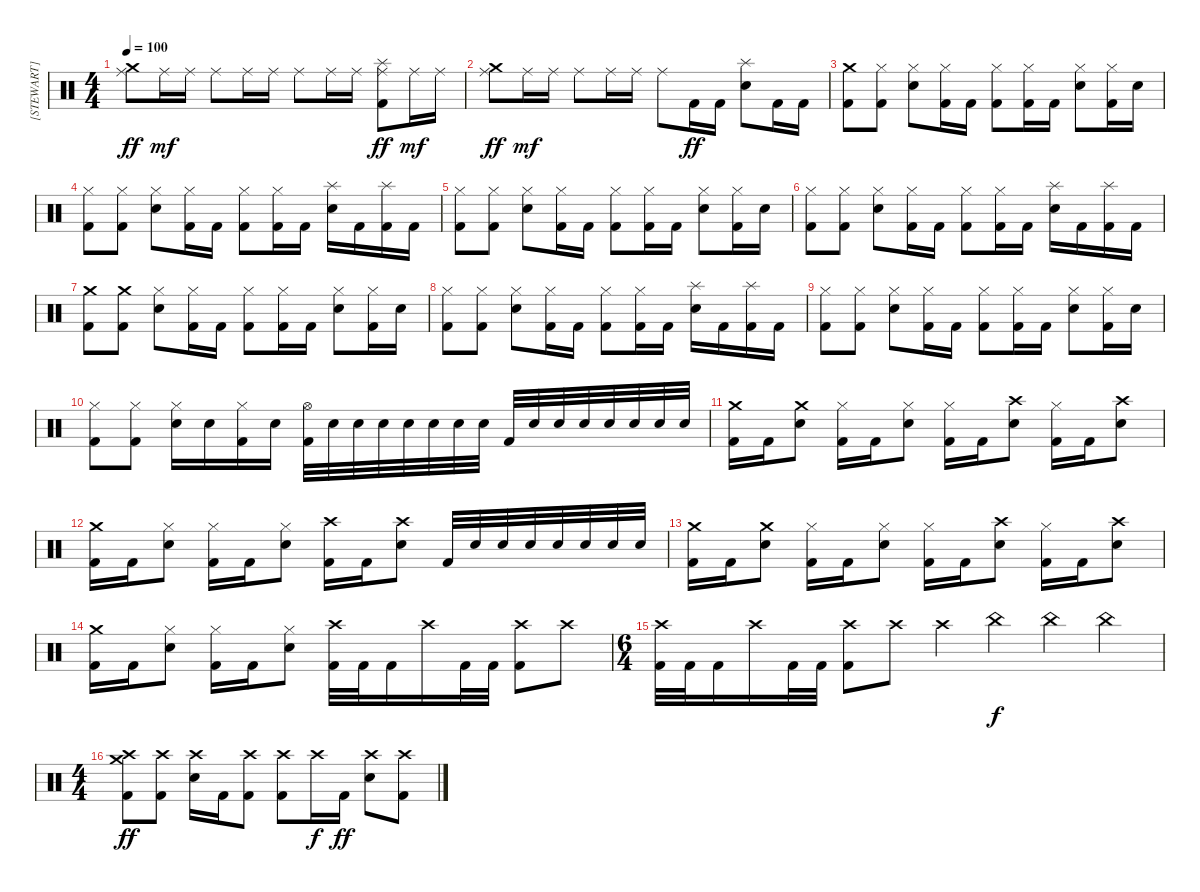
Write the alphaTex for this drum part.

\track ("[STEWART]" "[STEWART]") {instrument percussion}
\staff {score}
\articulation defaults
\ts (4 4)
\tempo 100
\clef neutral
\ks c
("Ride (middle)" "Crash medium (hit)").8{dy ff} "Ride (middle)".16{dy mf} "Ride (middle)".16 "Ride (middle)".8 "Ride (middle)".16 "Ride (middle)".16 "Ride (middle)".8 "Ride (middle)".16 "Ride (middle)".16 ("Ride (middle)" "Splash (hit)" "Kick (hit) 2").8{dy ff} "Ride (middle)".16{dy mf} "Ride (middle)".16 |
("Ride (middle)" "Crash medium (hit)").8{dy ff} "Ride (middle)".16{dy mf} "Ride (middle)".16 "Ride (middle)".8 "Ride (middle)".16 "Ride (middle)".16 "Ride (middle)".8 "Kick (hit) 2".16{dy ff} "Kick (hit) 2".16 ("Splash (hit)" "Electric Snare (hit)").8 "Kick (hit) 2".16 "Kick (hit) 2".16 |
("Crash medium (hit)" "Kick (hit) 2").8 ("Hi-Hat (closed)" "Kick (hit) 2").8 ("Hi-Hat (closed)" "Electric Snare (hit)").8 ("Hi-Hat (closed)" "Kick (hit) 2").16 "Kick (hit) 2".16 ("Hi-Hat (closed)" "Kick (hit) 2").8 ("Hi-Hat (closed)" "Kick (hit) 2").16 "Kick (hit) 2".16 ("Hi-Hat (closed)" "Electric Snare (hit)").8 ("Hi-Hat (closed)" "Kick (hit) 2").16 "Electric Snare (hit)".16 |
("Hi-Hat (closed)" "Kick (hit) 2").8 ("Hi-Hat (closed)" "Kick (hit) 2").8 ("Hi-Hat (closed)" "Electric Snare (hit)").8 ("Hi-Hat (closed)" "Kick (hit) 2").16 "Kick (hit) 2".16 ("Hi-Hat (closed)" "Kick (hit) 2").8 ("Hi-Hat (closed)" "Kick (hit) 2").16 "Kick (hit) 2".16 ("Splash (hit)" "Electric Snare (hit)").16 "Kick (hit) 2".16 ("Splash (hit)" "Kick (hit) 2").16 "Kick (hit) 2".16 |
("Hi-Hat (closed)" "Kick (hit) 2").8 ("Hi-Hat (closed)" "Kick (hit) 2").8 ("Hi-Hat (closed)" "Electric Snare (hit)").8 ("Hi-Hat (closed)" "Kick (hit) 2").16 "Kick (hit) 2".16 ("Hi-Hat (closed)" "Kick (hit) 2").8 ("Hi-Hat (closed)" "Kick (hit) 2").16 "Kick (hit) 2".16 ("Hi-Hat (closed)" "Electric Snare (hit)").8 ("Hi-Hat (closed)" "Kick (hit) 2").16 "Electric Snare (hit)".16 |
("Hi-Hat (closed)" "Kick (hit) 2").8 ("Hi-Hat (closed)" "Kick (hit) 2").8 ("Hi-Hat (closed)" "Electric Snare (hit)").8 ("Hi-Hat (closed)" "Kick (hit) 2").16 "Kick (hit) 2".16 ("Hi-Hat (closed)" "Kick (hit) 2").8 ("Hi-Hat (closed)" "Kick (hit) 2").16 "Kick (hit) 2".16 ("Splash (hit)" "Electric Snare (hit)").16 "Kick (hit) 2".16 ("Splash (hit)" "Kick (hit) 2").16 "Kick (hit) 2".16 |
("Crash medium (hit)" "Kick (hit) 2").8 ("Crash medium (hit)" "Kick (hit) 2").8 ("Hi-Hat (closed)" "Electric Snare (hit)").8 ("Hi-Hat (closed)" "Kick (hit) 2").16 "Kick (hit) 2".16 ("Hi-Hat (closed)" "Kick (hit) 2").8 ("Hi-Hat (closed)" "Kick (hit) 2").16 "Kick (hit) 2".16 ("Hi-Hat (closed)" "Electric Snare (hit)").8 ("Hi-Hat (closed)" "Kick (hit) 2").16 "Electric Snare (hit)".16 |
("Hi-Hat (closed)" "Kick (hit) 2").8 ("Hi-Hat (closed)" "Kick (hit) 2").8 ("Hi-Hat (closed)" "Electric Snare (hit)").8 ("Hi-Hat (closed)" "Kick (hit) 2").16 "Kick (hit) 2".16 ("Hi-Hat (closed)" "Kick (hit) 2").8 ("Hi-Hat (closed)" "Kick (hit) 2").16 "Kick (hit) 2".16 ("Splash (hit)" "Electric Snare (hit)").16 "Kick (hit) 2".16 ("Splash (hit)" "Kick (hit) 2").16 "Kick (hit) 2".16 |
("Hi-Hat (closed)" "Kick (hit) 2").8 ("Hi-Hat (closed)" "Kick (hit) 2").8 ("Hi-Hat (closed)" "Electric Snare (hit)").8 ("Hi-Hat (closed)" "Kick (hit) 2").16 "Kick (hit) 2".16 ("Hi-Hat (closed)" "Kick (hit) 2").8 ("Hi-Hat (closed)" "Kick (hit) 2").16 "Kick (hit) 2".16 ("Hi-Hat (closed)" "Electric Snare (hit)").8 ("Hi-Hat (closed)" "Kick (hit) 2").16 "Electric Snare (hit)".16 |
("Hi-Hat (closed)" "Kick (hit) 2").8 ("Hi-Hat (closed)" "Kick (hit) 2").8 ("Hi-Hat (closed)" "Electric Snare (hit)").16 "Electric Snare (hit)".16 ("Hi-Hat (closed)" "Kick (hit) 2").16 "Electric Snare (hit)".16 ("Hi-Hat (open)" "Kick (hit) 2").32 "Electric Snare (hit)".32 "Electric Snare (hit)".32 "Electric Snare (hit)".32 "Electric Snare (hit)".32 "Electric Snare (hit)".32 "Electric Snare (hit)".32 "Electric Snare (hit)".32 "Kick (hit) 2".32 "Electric Snare (hit)".32 "Electric Snare (hit)".32 "Electric Snare (hit)".32 "Electric Snare (hit)".32 "Electric Snare (hit)".32 "Electric Snare (hit)".32 "Electric Snare (hit)".32 |
("Crash medium (hit)" "Kick (hit) 2").16 "Kick (hit) 2".16 ("Crash medium (hit)" "Electric Snare (hit)").8 ("Hi-Hat (closed)" "Kick (hit) 2").16 "Kick (hit) 2".16 ("Hi-Hat (closed)" "Electric Snare (hit)").8 ("Hi-Hat (closed)" "Kick (hit) 2").16 "Kick (hit) 2".16 ("Crash high (hit)" "Electric Snare (hit)").8 ("Hi-Hat (closed)" "Kick (hit) 2").16 "Kick (hit) 2".16 ("Crash high (hit)" "Electric Snare (hit)").8 |
("Crash medium (hit)" "Kick (hit) 2").16 "Kick (hit) 2".16 ("Hi-Hat (closed)" "Electric Snare (hit)").8 ("Hi-Hat (closed)" "Kick (hit) 2").16 "Kick (hit) 2".16 ("Hi-Hat (closed)" "Electric Snare (hit)").8 ("Crash high (hit)" "Kick (hit) 2").16 "Kick (hit) 2".16 ("Crash high (hit)" "Electric Snare (hit)").8 "Kick (hit) 2".32 "Electric Snare (hit)".32 "Electric Snare (hit)".32 "Electric Snare (hit)".32 "Electric Snare (hit)".32 "Electric Snare (hit)".32 "Electric Snare (hit)".32 "Electric Snare (hit)".32 |
("Crash medium (hit)" "Kick (hit) 2").16 "Kick (hit) 2".16 ("Crash medium (hit)" "Electric Snare (hit)").8 ("Hi-Hat (closed)" "Kick (hit) 2").16 "Kick (hit) 2".16 ("Hi-Hat (closed)" "Electric Snare (hit)").8 ("Hi-Hat (closed)" "Kick (hit) 2").16 "Kick (hit) 2".16 ("Crash high (hit)" "Electric Snare (hit)").8 ("Hi-Hat (closed)" "Kick (hit) 2").16 "Kick (hit) 2".16 ("Crash high (hit)" "Electric Snare (hit)").8 |
("Crash medium (hit)" "Kick (hit) 2").16 "Kick (hit) 2".16 ("Hi-Hat (closed)" "Electric Snare (hit)").8 ("Hi-Hat (closed)" "Kick (hit) 2").16 "Kick (hit) 2".16 ("Hi-Hat (closed)" "Electric Snare (hit)").8 ("Crash high (hit)" "Kick (hit) 2").32 "Kick (hit) 2".32 "Kick (hit) 2".16 "Crash high (hit)".16 "Kick (hit) 2".32 "Kick (hit) 2".32 ("Crash high (hit)" "Kick (hit) 2").8 "Crash high (hit)".8 |
\ts (6 4)
("Crash high (hit)" "Kick (hit) 2").32 "Kick (hit) 2".32 "Kick (hit) 2".16 "Crash high (hit)".16 "Kick (hit) 2".32 "Kick (hit) 2".32 ("Crash high (hit)" "Kick (hit) 2").8 "Crash high (hit)".8 "Crash high (hit)".4 "China (hit)".4{dy f} "China (hit)".4 "China (hit)".4 |
\ts (4 4)
("Crash high (hit)" "Crash medium (hit)" "Kick (hit) 2").8{dy ff} ("Crash high (hit)" "Kick (hit) 2").8 ("Crash high (hit)" "Electric Snare (hit)").16 "Kick (hit) 2".16 ("Crash high (hit)" "Kick (hit) 2").8 ("Crash high (hit)" "Kick (hit) 2").8 "Crash high (hit)".16{dy f} "Kick (hit) 2".16{dy ff} ("Crash high (hit)" "Electric Snare (hit)").8 ("Crash high (hit)" "Kick (hit) 2").8
